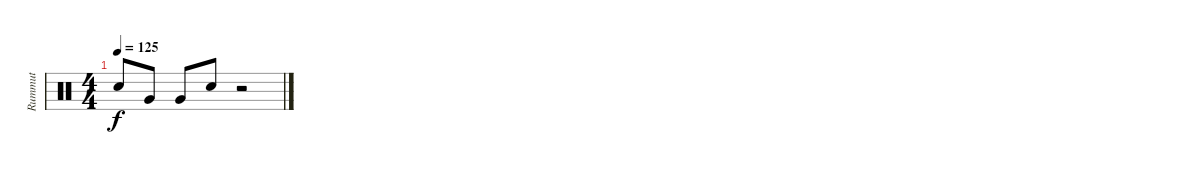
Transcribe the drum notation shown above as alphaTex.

\track ("Rummut" "Rummut") {instrument percussion}
\staff {score}
\articulation defaults
\ts (4 4)
\tempo 125
\clef neutral
\ks c "Snare (hit) 2".8{dy f} "Very Low Tom (hit)".8 "Very Low Tom (hit)".8 "Snare (hit) 2".8
r.2
